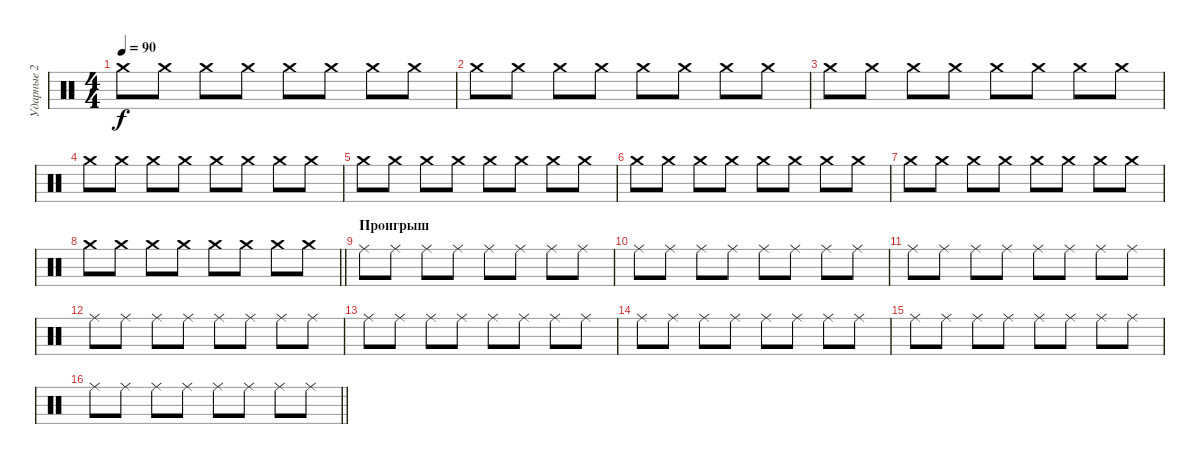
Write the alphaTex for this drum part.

\track ("Ударные 2" "Ударные 2") {instrument percussion}
\staff {score}
\articulation defaults
\ts (4 4)
\section ("" " ")
\tempo 90
\clef neutral
\ks c "Crash medium (hit)".8{dy f} "Crash medium (hit)".8 "Crash medium (hit)".8 "Crash medium (hit)".8 "Crash medium (hit)".8 "Crash medium (hit)".8 "Crash medium (hit)".8 "Crash medium (hit)".8
|
"Crash medium (hit)".8 "Crash medium (hit)".8 "Crash medium (hit)".8 "Crash medium (hit)".8 "Crash medium (hit)".8 "Crash medium (hit)".8 "Crash medium (hit)".8 "Crash medium (hit)".8 |
"Crash medium (hit)".8 "Crash medium (hit)".8 "Crash medium (hit)".8 "Crash medium (hit)".8 "Crash medium (hit)".8 "Crash medium (hit)".8 "Crash medium (hit)".8 "Crash medium (hit)".8 |
"Crash medium (hit)".8 "Crash medium (hit)".8 "Crash medium (hit)".8 "Crash medium (hit)".8 "Crash medium (hit)".8 "Crash medium (hit)".8 "Crash medium (hit)".8 "Crash medium (hit)".8 |
"Crash medium (hit)".8 "Crash medium (hit)".8 "Crash medium (hit)".8 "Crash medium (hit)".8 "Crash medium (hit)".8 "Crash medium (hit)".8 "Crash medium (hit)".8 "Crash medium (hit)".8 |
"Crash medium (hit)".8 "Crash medium (hit)".8 "Crash medium (hit)".8 "Crash medium (hit)".8 "Crash medium (hit)".8 "Crash medium (hit)".8 "Crash medium (hit)".8 "Crash medium (hit)".8 |
"Crash medium (hit)".8 "Crash medium (hit)".8 "Crash medium (hit)".8 "Crash medium (hit)".8 "Crash medium (hit)".8 "Crash medium (hit)".8 "Crash medium (hit)".8 "Crash medium (hit)".8 |
\barLineRight lightlight "Crash medium (hit)".8 "Crash medium (hit)".8 "Crash medium (hit)".8 "Crash medium (hit)".8 "Crash medium (hit)".8 "Crash medium (hit)".8 "Crash medium (hit)".8 "Crash medium (hit)".8
|
\section ("" "Проигрыш")
"Ride (middle)".8 "Ride (middle)".8 "Ride (middle)".8 "Ride (middle)".8 "Ride (middle)".8 "Ride (middle)".8 "Ride (middle)".8 "Ride (middle)".8 |
"Ride (middle)".8 "Ride (middle)".8 "Ride (middle)".8 "Ride (middle)".8 "Ride (middle)".8 "Ride (middle)".8 "Ride (middle)".8 "Ride (middle)".8 |
"Ride (middle)".8 "Ride (middle)".8 "Ride (middle)".8 "Ride (middle)".8 "Ride (middle)".8 "Ride (middle)".8 "Ride (middle)".8 "Ride (middle)".8 |
"Ride (middle)".8 "Ride (middle)".8 "Ride (middle)".8 "Ride (middle)".8 "Ride (middle)".8 "Ride (middle)".8 "Ride (middle)".8 "Ride (middle)".8 |
"Ride (middle)".8 "Ride (middle)".8 "Ride (middle)".8 "Ride (middle)".8 "Ride (middle)".8 "Ride (middle)".8 "Ride (middle)".8 "Ride (middle)".8 |
"Ride (middle)".8 "Ride (middle)".8 "Ride (middle)".8 "Ride (middle)".8 "Ride (middle)".8 "Ride (middle)".8 "Ride (middle)".8 "Ride (middle)".8 |
"Ride (middle)".8 "Ride (middle)".8 "Ride (middle)".8 "Ride (middle)".8 "Ride (middle)".8 "Ride (middle)".8 "Ride (middle)".8 "Ride (middle)".8 |
\barLineRight lightlight "Ride (middle)".8 "Ride (middle)".8 "Ride (middle)".8 "Ride (middle)".8 "Ride (middle)".8 "Ride (middle)".8 "Ride (middle)".8 "Ride (middle)".8
